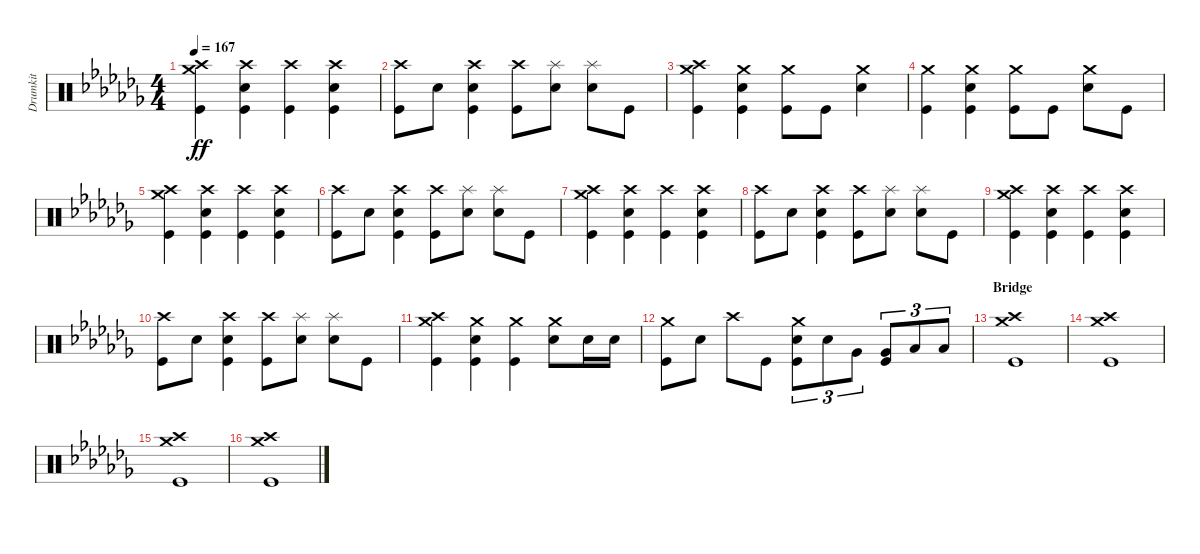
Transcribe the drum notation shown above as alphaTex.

\track ("Drumkit" "Drumkit") {instrument percussion}
\staff {score}
\articulation defaults
\ts (4 4)
\tempo 167
\clef neutral
\ks abminor
("Crash high (hit)" "Crash medium (hit)" "Kick (hit)").4{dy ff} ("Snare (hit) 2" "Kick (hit)" "Crash high (hit)").4 ("Kick (hit)" "Crash high (hit)").4 ("Snare (hit) 2" "Kick (hit)" "Crash high (hit)").4 |
("Kick (hit)" "Crash high (hit)").8 "Snare (hit) 2".8 ("Snare (hit) 2" "Kick (hit)" "Crash high (hit)").4 ("Kick (hit)" "Crash high (hit)").8 ("Snare (hit) 2" "Splash (hit)").8 ("Snare (hit) 2" "Splash (hit)").8 "Kick (hit)".8 |
("Kick (hit)" "Crash medium (hit)" "Crash high (hit)").4 ("Kick (hit)" "Snare (hit) 2" "Crash medium (hit)").4 ("Kick (hit)" "Crash medium (hit)").8 "Kick (hit)".8 ("Snare (hit) 2" "Crash medium (hit)").4 |
("Kick (hit)" "Crash medium (hit)").4 ("Kick (hit)" "Snare (hit) 2" "Crash medium (hit)").4 ("Kick (hit)" "Crash medium (hit)").8 "Kick (hit)".8 ("Snare (hit) 2" "Crash medium (hit)").8 "Kick (hit)".8 |
("Crash high (hit)" "Crash medium (hit)" "Kick (hit)").4 ("Snare (hit) 2" "Kick (hit)" "Crash high (hit)").4 ("Kick (hit)" "Crash high (hit)").4 ("Snare (hit) 2" "Kick (hit)" "Crash high (hit)").4 |
("Kick (hit)" "Crash high (hit)").8 "Snare (hit) 2".8 ("Snare (hit) 2" "Kick (hit)" "Crash high (hit)").4 ("Kick (hit)" "Crash high (hit)").8 ("Snare (hit) 2" "Splash (hit)").8 ("Snare (hit) 2" "Splash (hit)").8 "Kick (hit)".8 |
("Crash high (hit)" "Crash medium (hit)" "Kick (hit)").4 ("Snare (hit) 2" "Kick (hit)" "Crash high (hit)").4 ("Kick (hit)" "Crash high (hit)").4 ("Snare (hit) 2" "Kick (hit)" "Crash high (hit)").4 |
("Kick (hit)" "Crash high (hit)").8 "Snare (hit) 2".8 ("Snare (hit) 2" "Kick (hit)" "Crash high (hit)").4 ("Kick (hit)" "Crash high (hit)").8 ("Snare (hit) 2" "Splash (hit)").8 ("Snare (hit) 2" "Splash (hit)").8 "Kick (hit)".8 |
("Crash high (hit)" "Crash medium (hit)" "Kick (hit)").4 ("Snare (hit) 2" "Kick (hit)" "Crash high (hit)").4 ("Kick (hit)" "Crash high (hit)").4 ("Snare (hit) 2" "Kick (hit)" "Crash high (hit)").4 |
("Kick (hit)" "Crash high (hit)").8 "Snare (hit) 2".8 ("Snare (hit) 2" "Kick (hit)" "Crash high (hit)").4 ("Kick (hit)" "Crash high (hit)").8 ("Snare (hit) 2" "Splash (hit)").8 ("Snare (hit) 2" "Splash (hit)").8 "Kick (hit)".8 |
("Kick (hit)" "Crash medium (hit)" "Crash high (hit)").4 ("Kick (hit)" "Snare (hit) 2" "Crash medium (hit)").4 ("Kick (hit)" "Crash medium (hit)").4 ("Snare (hit) 2" "Crash medium (hit)").8 "Snare (hit) 2".16 "Snare (hit) 2".16 |
("Kick (hit)" "Crash medium (hit)").8 "Snare (hit) 2".8 "Crash high (hit)".8 "Kick (hit)".8 ("Snare (hit) 2" "Crash medium (hit)" "Kick (hit)").8{tu (3 2)} "Snare (hit) 2".8{tu (3 2)} "Very Low Tom (hit)".8{tu (3 2)} ("Very Low Tom (hit)" "Kick (hit)").8{tu (3 2)} "Low Floor Tom (hit)".8{tu (3 2)} "Low Floor Tom (hit)".8{tu (3 2)} |
\section ("" "Bridge")
("Kick (hit)" "Crash medium (hit)" "Crash high (hit)").1 |
("Kick (hit)" "Crash medium (hit)" "Crash high (hit)").1 |
("Kick (hit)" "Crash medium (hit)" "Crash high (hit)").1 |
("Kick (hit)" "Crash medium (hit)" "Crash high (hit)").1
